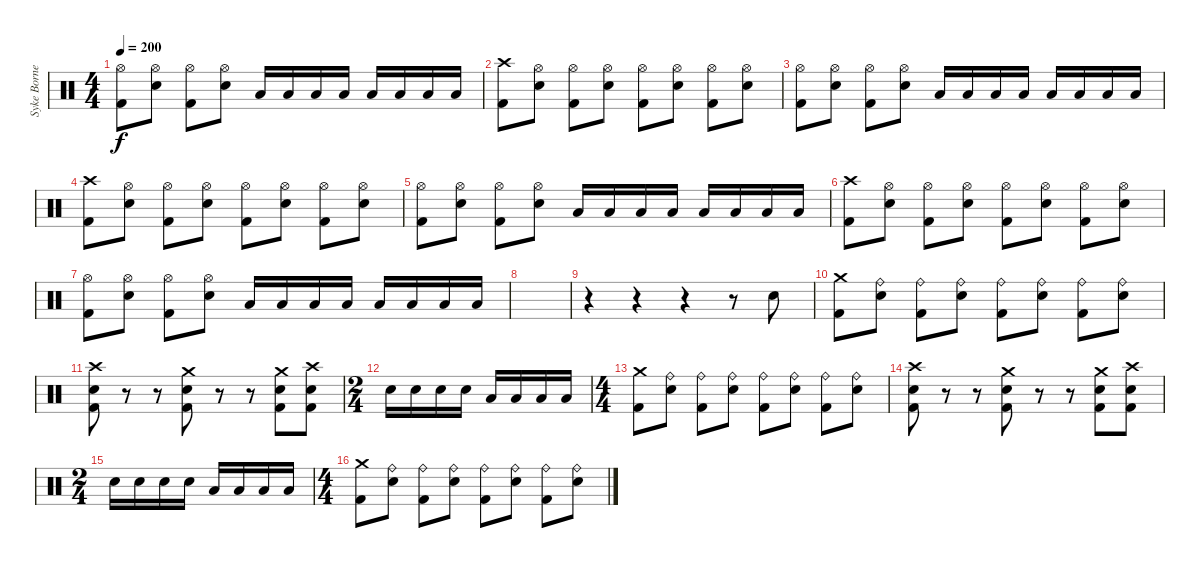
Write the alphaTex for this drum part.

\track ("Syke Bornetto (Drums)" "Syke Borne") {instrument percussion}
\staff {score}
\articulation defaults
\ts (4 4)
\tempo 200
\clef neutral
\ks c
("Hi-Hat (open)" "Kick (hit) 2").8{dy f} ("Hi-Hat (open)" "Electric Snare (hit)").8 ("Hi-Hat (open)" "Kick (hit) 2").8 ("Hi-Hat (open)" "Electric Snare (hit)").8 "Low Floor Tom (hit)".16 "Low Floor Tom (hit)".16 "Low Floor Tom (hit)".16 "Low Floor Tom (hit)".16 "Low Tom (hit)".16 "Low Tom (hit)".16 "Low Tom (hit)".16 "Low Tom (hit)".16 |
("Crash high (hit)" "Kick (hit) 2").8 ("Hi-Hat (open)" "Electric Snare (hit)").8 ("Hi-Hat (open)" "Kick (hit) 2").8 ("Hi-Hat (open)" "Electric Snare (hit)").8 ("Hi-Hat (open)" "Kick (hit) 2").8 ("Hi-Hat (open)" "Electric Snare (hit)").8 ("Hi-Hat (open)" "Kick (hit) 2").8 ("Hi-Hat (open)" "Electric Snare (hit)").8 |
("Hi-Hat (open)" "Kick (hit) 2").8 ("Hi-Hat (open)" "Electric Snare (hit)").8 ("Hi-Hat (open)" "Kick (hit) 2").8 ("Hi-Hat (open)" "Electric Snare (hit)").8 "Low Floor Tom (hit)".16 "Low Floor Tom (hit)".16 "Low Floor Tom (hit)".16 "Low Floor Tom (hit)".16 "Low Tom (hit)".16 "Low Tom (hit)".16 "Low Tom (hit)".16 "Low Tom (hit)".16 |
("Crash high (hit)" "Kick (hit) 2").8 ("Hi-Hat (open)" "Electric Snare (hit)").8 ("Hi-Hat (open)" "Kick (hit) 2").8 ("Hi-Hat (open)" "Electric Snare (hit)").8 ("Hi-Hat (open)" "Kick (hit) 2").8 ("Hi-Hat (open)" "Electric Snare (hit)").8 ("Hi-Hat (open)" "Kick (hit) 2").8 ("Hi-Hat (open)" "Electric Snare (hit)").8 |
("Hi-Hat (open)" "Kick (hit) 2").8 ("Hi-Hat (open)" "Electric Snare (hit)").8 ("Hi-Hat (open)" "Kick (hit) 2").8 ("Hi-Hat (open)" "Electric Snare (hit)").8 "Low Floor Tom (hit)".16 "Low Floor Tom (hit)".16 "Low Floor Tom (hit)".16 "Low Floor Tom (hit)".16 "Low Tom (hit)".16 "Low Tom (hit)".16 "Low Tom (hit)".16 "Low Tom (hit)".16 |
("Crash high (hit)" "Kick (hit) 2").8 ("Hi-Hat (open)" "Electric Snare (hit)").8 ("Hi-Hat (open)" "Kick (hit) 2").8 ("Hi-Hat (open)" "Electric Snare (hit)").8 ("Hi-Hat (open)" "Kick (hit) 2").8 ("Hi-Hat (open)" "Electric Snare (hit)").8 ("Hi-Hat (open)" "Kick (hit) 2").8 ("Hi-Hat (open)" "Electric Snare (hit)").8 |
("Hi-Hat (open)" "Kick (hit) 2").8 ("Hi-Hat (open)" "Electric Snare (hit)").8 ("Hi-Hat (open)" "Kick (hit) 2").8 ("Hi-Hat (open)" "Electric Snare (hit)").8 "Low Floor Tom (hit)".16 "Low Floor Tom (hit)".16 "Low Floor Tom (hit)".16 "Low Floor Tom (hit)".16 "Low Tom (hit)".16 "Low Tom (hit)".16 "Low Tom (hit)".16 "Low Tom (hit)".16 |
|
r.4 r.4 r.4 r.8 "Electric Snare (hit)".8 |
("Crash medium (hit)" "Kick (hit) 2").8 ("Ride (bell)" "Electric Snare (hit)").8 ("Ride (bell)" "Kick (hit) 2").8 ("Ride (bell)" "Electric Snare (hit)").8 ("Ride (bell)" "Kick (hit) 2").8 ("Ride (bell)" "Electric Snare (hit)").8 ("Ride (bell)" "Kick (hit) 2").8 ("Ride (bell)" "Electric Snare (hit)").8 |
("Crash high (hit)" "Kick (hit) 2" "Electric Snare (hit)").8 r.8 r.8 ("Crash medium (hit)" "Kick (hit) 2" "Electric Snare (hit)").8 r.8 r.8 ("Crash medium (hit)" "Kick (hit) 2" "Electric Snare (hit)").8 ("Crash high (hit)" "Kick (hit) 2" "Electric Snare (hit)").8 |
\ts (2 4)
"Electric Snare (hit)".16 "Electric Snare (hit)".16 "Electric Snare (hit)".16 "Electric Snare (hit)".16 "Low Floor Tom (hit)".16 "Low Floor Tom (hit)".16 "Low Floor Tom (hit)".16 "Low Floor Tom (hit)".16 |
\ts (4 4)
("Crash medium (hit)" "Kick (hit) 2").8 ("Ride (bell)" "Electric Snare (hit)").8 ("Ride (bell)" "Kick (hit) 2").8 ("Ride (bell)" "Electric Snare (hit)").8 ("Ride (bell)" "Kick (hit) 2").8 ("Ride (bell)" "Electric Snare (hit)").8 ("Ride (bell)" "Kick (hit) 2").8 ("Ride (bell)" "Electric Snare (hit)").8 |
("Crash high (hit)" "Kick (hit) 2" "Electric Snare (hit)").8 r.8 r.8 ("Crash medium (hit)" "Kick (hit) 2" "Electric Snare (hit)").8 r.8 r.8 ("Crash medium (hit)" "Kick (hit) 2" "Electric Snare (hit)").8 ("Crash high (hit)" "Kick (hit) 2" "Electric Snare (hit)").8 |
\ts (2 4)
"Electric Snare (hit)".16 "Electric Snare (hit)".16 "Electric Snare (hit)".16 "Electric Snare (hit)".16 "Low Floor Tom (hit)".16 "Low Floor Tom (hit)".16 "Low Floor Tom (hit)".16 "Low Floor Tom (hit)".16 |
\ts (4 4)
("Crash medium (hit)" "Kick (hit) 2").8 ("Ride (bell)" "Electric Snare (hit)").8 ("Ride (bell)" "Kick (hit) 2").8 ("Ride (bell)" "Electric Snare (hit)").8 ("Ride (bell)" "Kick (hit) 2").8 ("Ride (bell)" "Electric Snare (hit)").8 ("Ride (bell)" "Kick (hit) 2").8 ("Ride (bell)" "Electric Snare (hit)").8
